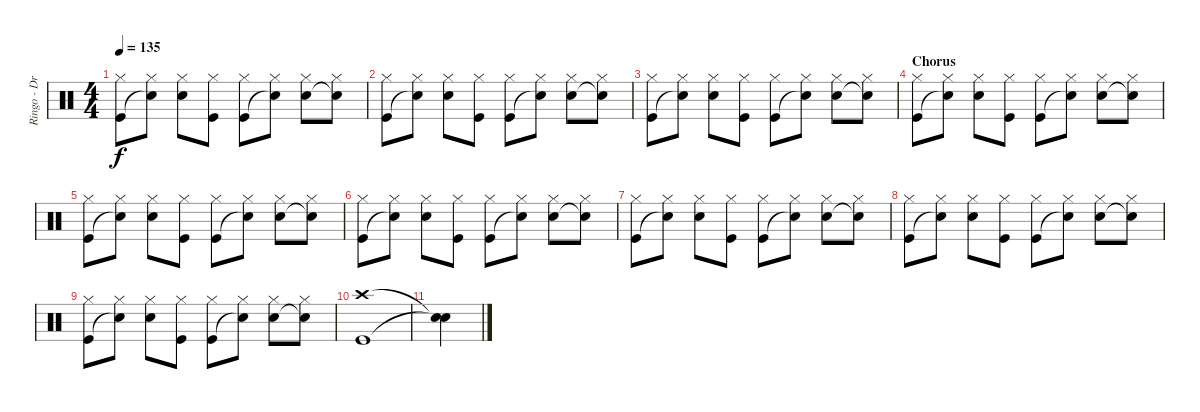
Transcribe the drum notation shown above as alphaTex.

\track ("Ringo - Drums" "Ringo - Dr") {instrument percussion}
\staff {score}
\articulation defaults
\ts (4 4)
\tempo 135
\clef neutral
\ks c
("Kick (hit)" "Hi-Hat (closed)").8{dy f} ("Snare (hit)"{t} "Hi-Hat (closed)").8 ("Snare (hit) 2" "Hi-Hat (closed)").8 ("Kick (hit)" "Hi-Hat (closed)").8 ("Kick (hit)" "Hi-Hat (closed)").8 ("Snare (hit)"{t} "Hi-Hat (closed)").8 ("Snare (hit) 2" "Hi-Hat (closed)").8 ("Snare (hit)"{t} "Hi-Hat (closed)").8 |
("Kick (hit)" "Hi-Hat (closed)").8 ("Snare (hit)"{t} "Hi-Hat (closed)").8 ("Snare (hit) 2" "Hi-Hat (closed)").8 ("Kick (hit)" "Hi-Hat (closed)").8 ("Kick (hit)" "Hi-Hat (closed)").8 ("Snare (hit)"{t} "Hi-Hat (closed)").8 ("Snare (hit) 2" "Hi-Hat (closed)").8 ("Snare (hit)"{t} "Hi-Hat (closed)").8 |
("Kick (hit)" "Hi-Hat (closed)").8 ("Snare (hit)"{t} "Hi-Hat (closed)").8 ("Snare (hit) 2" "Hi-Hat (closed)").8 ("Kick (hit)" "Hi-Hat (closed)").8 ("Kick (hit)" "Hi-Hat (closed)").8 ("Snare (hit)"{t} "Hi-Hat (closed)").8 ("Snare (hit) 2" "Hi-Hat (closed)").8 ("Snare (hit)"{t} "Hi-Hat (closed)").8 |
\section ("" "Chorus")
("Kick (hit)" "Hi-Hat (closed)").8 ("Snare (hit)"{t} "Hi-Hat (closed)").8 ("Snare (hit) 2" "Hi-Hat (closed)").8 ("Kick (hit)" "Hi-Hat (closed)").8 ("Kick (hit)" "Hi-Hat (closed)").8 ("Snare (hit)"{t} "Hi-Hat (closed)").8 ("Snare (hit) 2" "Hi-Hat (closed)").8 ("Snare (hit)"{t} "Hi-Hat (closed)").8 |
("Kick (hit)" "Hi-Hat (closed)").8 ("Snare (hit)"{t} "Hi-Hat (closed)").8 ("Snare (hit) 2" "Hi-Hat (closed)").8 ("Kick (hit)" "Hi-Hat (closed)").8 ("Kick (hit)" "Hi-Hat (closed)").8 ("Snare (hit)"{t} "Hi-Hat (closed)").8 ("Snare (hit) 2" "Hi-Hat (closed)").8 ("Snare (hit)"{t} "Hi-Hat (closed)").8 |
("Kick (hit)" "Hi-Hat (closed)").8 ("Snare (hit)"{t} "Hi-Hat (closed)").8 ("Snare (hit) 2" "Hi-Hat (closed)").8 ("Kick (hit)" "Hi-Hat (closed)").8 ("Kick (hit)" "Hi-Hat (closed)").8 ("Snare (hit)"{t} "Hi-Hat (closed)").8 ("Snare (hit) 2" "Hi-Hat (closed)").8 ("Snare (hit)"{t} "Hi-Hat (closed)").8 |
("Kick (hit)" "Hi-Hat (closed)").8 ("Snare (hit)"{t} "Hi-Hat (closed)").8 ("Snare (hit) 2" "Hi-Hat (closed)").8 ("Kick (hit)" "Hi-Hat (closed)").8 ("Kick (hit)" "Hi-Hat (closed)").8 ("Snare (hit)"{t} "Hi-Hat (closed)").8 ("Snare (hit) 2" "Hi-Hat (closed)").8 ("Snare (hit)"{t} "Hi-Hat (closed)").8 |
("Kick (hit)" "Hi-Hat (closed)").8 ("Snare (hit)"{t} "Hi-Hat (closed)").8 ("Snare (hit) 2" "Hi-Hat (closed)").8 ("Kick (hit)" "Hi-Hat (closed)").8 ("Kick (hit)" "Hi-Hat (closed)").8 ("Snare (hit)"{t} "Hi-Hat (closed)").8 ("Snare (hit) 2" "Hi-Hat (closed)").8 ("Snare (hit)"{t} "Hi-Hat (closed)").8 |
("Kick (hit)" "Hi-Hat (closed)").8 ("Snare (hit)"{t} "Hi-Hat (closed)").8 ("Snare (hit) 2" "Hi-Hat (closed)").8 ("Kick (hit)" "Hi-Hat (closed)").8 ("Kick (hit)" "Hi-Hat (closed)").8 ("Snare (hit)"{t} "Hi-Hat (closed)").8 ("Snare (hit) 2" "Hi-Hat (closed)").8 ("Snare (hit)"{t} "Hi-Hat (closed)").8 |
("Kick (hit)" "Crash high (hit)").1 |
("Snare (hit)"{t} "Snare (hit)"{t}).4
